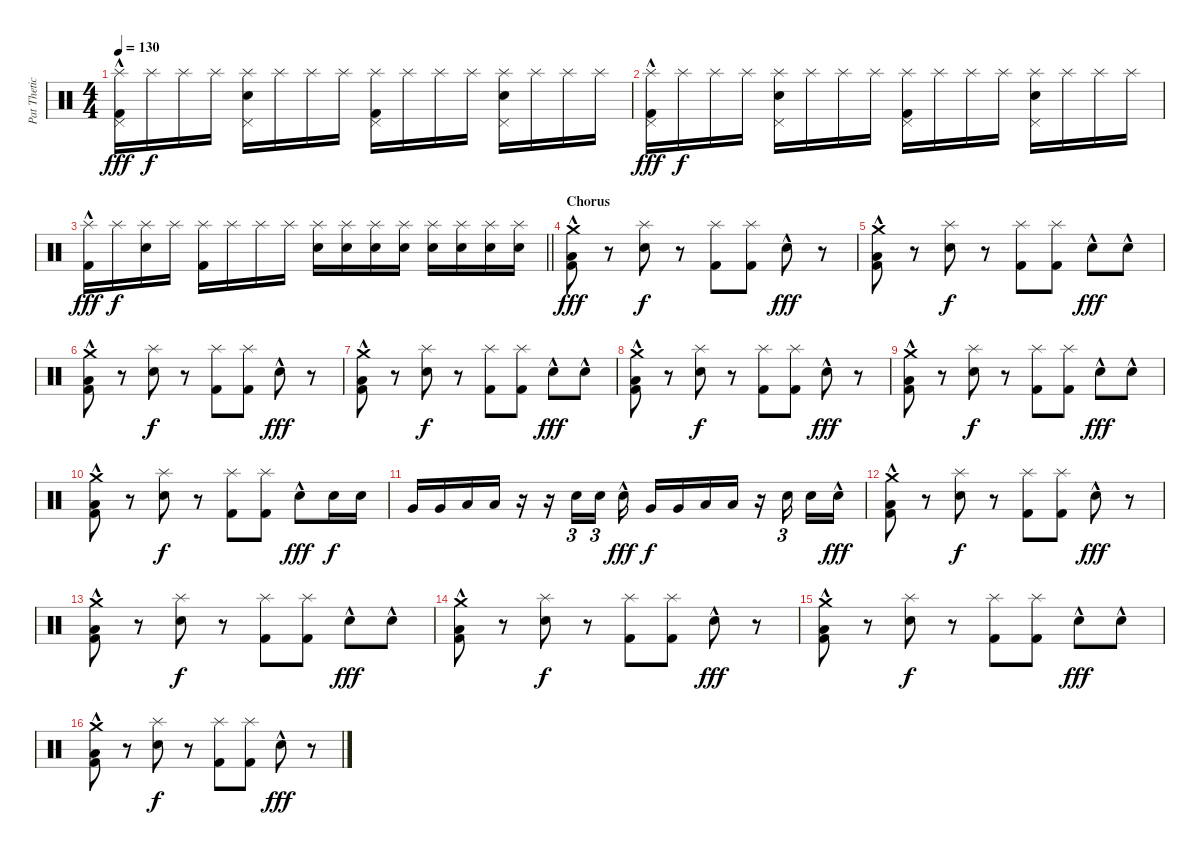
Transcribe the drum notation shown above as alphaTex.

\track ("Pat Thetic Drums" "Pat Thetic") {instrument percussion}
\staff {score}
\articulation defaults
\ts (4 4)
\tempo 130
\clef neutral
\ks c
("Splash (hit)" "Pedal Hi-Hat (hit)" "Kick (hit) 2"{hac}).16{dy fff} "Splash (hit)".16{dy f} "Splash (hit)".16 "Splash (hit)".16 ("Splash (hit)" "Pedal Hi-Hat (hit)" "Snare (hit) 2").16 "Splash (hit)".16 "Splash (hit)".16 "Splash (hit)".16 ("Splash (hit)" "Pedal Hi-Hat (hit)" "Kick (hit) 2").16 "Splash (hit)".16 "Splash (hit)".16 "Splash (hit)".16 ("Splash (hit)" "Pedal Hi-Hat (hit)" "Snare (hit) 2").16 "Splash (hit)".16 "Splash (hit)".16 "Splash (hit)".16 |
("Splash (hit)" "Pedal Hi-Hat (hit)" "Kick (hit) 2"{hac}).16{dy fff} "Splash (hit)".16{dy f} "Splash (hit)".16 "Splash (hit)".16 ("Splash (hit)" "Pedal Hi-Hat (hit)" "Snare (hit) 2").16 "Splash (hit)".16 "Splash (hit)".16 "Splash (hit)".16 ("Splash (hit)" "Pedal Hi-Hat (hit)" "Kick (hit) 2").16 "Splash (hit)".16 "Splash (hit)".16 "Splash (hit)".16 ("Splash (hit)" "Pedal Hi-Hat (hit)" "Snare (hit) 2").16 "Splash (hit)".16 "Splash (hit)".16 "Splash (hit)".16 |
\barLineRight lightlight
("Splash (hit)" "Kick (hit) 2"{hac}).16{dy fff} "Splash (hit)".16{dy f} ("Splash (hit)" "Snare (hit) 2").16 "Splash (hit)".16 ("Splash (hit)" "Kick (hit) 2").16 "Splash (hit)".16 "Splash (hit)".16 "Splash (hit)".16 ("Splash (hit)" "Snare (hit) 2").16 ("Splash (hit)" "Snare (hit) 2").16 ("Splash (hit)" "Snare (hit) 2").16 ("Splash (hit)" "Snare (hit) 2").16 ("Splash (hit)" "Snare (hit) 2").16 ("Splash (hit)" "Snare (hit) 2").16 ("Splash (hit)" "Snare (hit) 2").16 ("Splash (hit)" "Snare (hit) 2").16 |
\section ("" "Chorus")
("Kick (hit) 2"{hac} "Low Floor Tom (hit)" "Crash medium (hit)").8{dy fff} r.8 ("Splash (hit)" "Snare (hit) 2").8{dy f} r.8 ("Splash (hit)" "Kick (hit) 2").8 ("Splash (hit)" "Kick (hit) 2").8 "Snare (hit) 2"{hac}.8{dy fff} r.8 |
("Kick (hit) 2"{hac} "Low Floor Tom (hit)" "Crash medium (hit)").8 r.8 ("Splash (hit)" "Snare (hit) 2").8{dy f} r.8 ("Splash (hit)" "Kick (hit) 2").8 ("Splash (hit)" "Kick (hit) 2").8 "Snare (hit) 2"{hac}.8{dy fff} "Snare (hit) 2"{hac}.8 |
("Kick (hit) 2"{hac} "Low Floor Tom (hit)" "Crash medium (hit)").8 r.8 ("Splash (hit)" "Snare (hit) 2").8{dy f} r.8 ("Splash (hit)" "Kick (hit) 2").8 ("Splash (hit)" "Kick (hit) 2").8 "Snare (hit) 2"{hac}.8{dy fff} r.8 |
("Kick (hit) 2"{hac} "Low Floor Tom (hit)" "Crash medium (hit)").8 r.8 ("Splash (hit)" "Snare (hit) 2").8{dy f} r.8 ("Splash (hit)" "Kick (hit) 2").8 ("Splash (hit)" "Kick (hit) 2").8 "Snare (hit) 2"{hac}.8{dy fff} "Snare (hit) 2"{hac}.8 |
("Kick (hit) 2"{hac} "Low Floor Tom (hit)" "Crash medium (hit)").8 r.8 ("Splash (hit)" "Snare (hit) 2").8{dy f} r.8 ("Splash (hit)" "Kick (hit) 2").8 ("Splash (hit)" "Kick (hit) 2").8 "Snare (hit) 2"{hac}.8{dy fff} r.8 |
("Kick (hit) 2"{hac} "Low Floor Tom (hit)" "Crash medium (hit)").8 r.8 ("Splash (hit)" "Snare (hit) 2").8{dy f} r.8 ("Splash (hit)" "Kick (hit) 2").8 ("Splash (hit)" "Kick (hit) 2").8 "Snare (hit) 2"{hac}.8{dy fff} "Snare (hit) 2"{hac}.8 |
("Kick (hit) 2"{hac} "Low Floor Tom (hit)" "Crash medium (hit)").8 r.8 ("Splash (hit)" "Snare (hit) 2").8{dy f} r.8 ("Splash (hit)" "Kick (hit) 2").8 ("Splash (hit)" "Kick (hit) 2").8 "Snare (hit) 2"{hac}.8{dy fff} "Snare (hit) 2".16{dy f} "Snare (hit) 2".16 |
"Very Low Tom (hit)".16 "Very Low Tom (hit)".16 "Low Tom (hit)".16 "Low Tom (hit)".16 r.16 r.16 "Snare (hit) 2".16{tu (3 2)} "Snare (hit) 2".16{tu (3 2) beam splitsecondary} "Snare (hit) 2"{hac}.16{dy fff} "Very Low Tom (hit)".16{dy f} "Very Low Tom (hit)".16 "Low Tom (hit)".16 "Low Tom (hit)".16 r.16 "Snare (hit) 2".16{tu (3 2) beam splitsecondary} "Snare (hit) 2".16 "Snare (hit) 2"{hac}.16{dy fff} |
("Kick (hit) 2"{hac} "Low Floor Tom (hit)" "Crash medium (hit)").8 r.8 ("Splash (hit)" "Snare (hit) 2").8{dy f} r.8 ("Splash (hit)" "Kick (hit) 2").8 ("Splash (hit)" "Kick (hit) 2").8 "Snare (hit) 2"{hac}.8{dy fff} r.8 |
("Kick (hit) 2"{hac} "Low Floor Tom (hit)" "Crash medium (hit)").8 r.8 ("Splash (hit)" "Snare (hit) 2").8{dy f} r.8 ("Splash (hit)" "Kick (hit) 2").8 ("Splash (hit)" "Kick (hit) 2").8 "Snare (hit) 2"{hac}.8{dy fff} "Snare (hit) 2"{hac}.8 |
("Kick (hit) 2"{hac} "Low Floor Tom (hit)" "Crash medium (hit)").8 r.8 ("Splash (hit)" "Snare (hit) 2").8{dy f} r.8 ("Splash (hit)" "Kick (hit) 2").8 ("Splash (hit)" "Kick (hit) 2").8 "Snare (hit) 2"{hac}.8{dy fff} r.8 |
("Kick (hit) 2"{hac} "Low Floor Tom (hit)" "Crash medium (hit)").8 r.8 ("Splash (hit)" "Snare (hit) 2").8{dy f} r.8 ("Splash (hit)" "Kick (hit) 2").8 ("Splash (hit)" "Kick (hit) 2").8 "Snare (hit) 2"{hac}.8{dy fff} "Snare (hit) 2"{hac}.8 |
("Kick (hit) 2"{hac} "Low Floor Tom (hit)" "Crash medium (hit)").8 r.8 ("Splash (hit)" "Snare (hit) 2").8{dy f} r.8 ("Splash (hit)" "Kick (hit) 2").8 ("Splash (hit)" "Kick (hit) 2").8 "Snare (hit) 2"{hac}.8{dy fff} r.8
